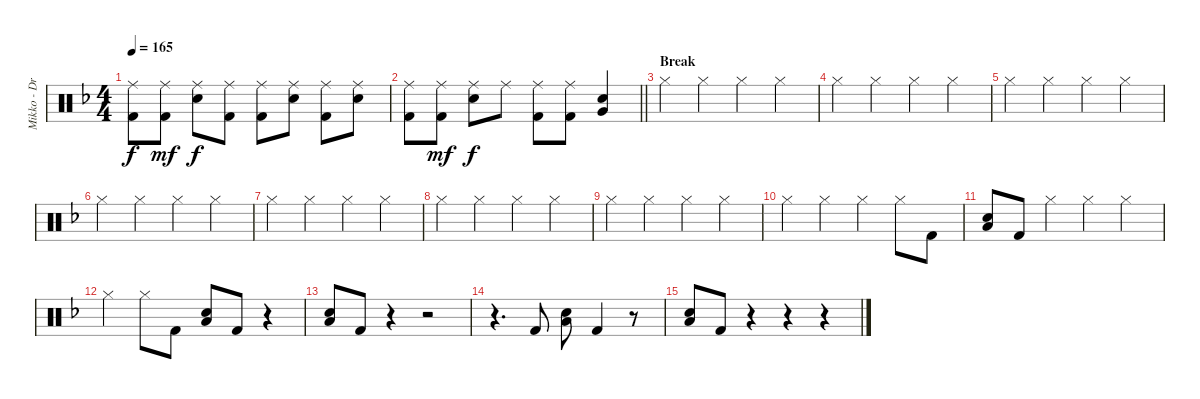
\track ("Mikko - Drums" "Mikko - Dr") {instrument percussion}
\staff {score}
\articulation defaults
\ts (4 4)
\tempo 165
\clef neutral
\ks dminor
("Ride (middle)" "Kick (hit) 2").8{dy f} ("Ride (middle)" "Kick (hit) 2").8{dy mf} ("Ride (middle)" "Snare (hit) 2").8{dy f} ("Ride (middle)" "Kick (hit) 2").8 ("Ride (middle)" "Kick (hit) 2").8 ("Ride (middle)" "Snare (hit) 2").8 ("Ride (middle)" "Kick (hit) 2").8 ("Ride (middle)" "Snare (hit) 2").8 |
\barLineRight lightlight
("Ride (middle)" "Kick (hit) 2").8 ("Ride (middle)" "Kick (hit) 2").8{dy mf} ("Ride (middle)" "Snare (hit) 2").8{dy f} "Ride (middle)".8 ("Ride (middle)" "Kick (hit) 2").8 ("Ride (middle)" "Kick (hit) 2").8 ("Snare (hit) 2" "Very Low Tom (hit)").4 |
\section ("" "Break")
"Hi-Hat (closed)".4 "Hi-Hat (closed)".4 "Hi-Hat (closed)".4 "Hi-Hat (closed)".4 |
"Hi-Hat (closed)".4 "Hi-Hat (closed)".4 "Hi-Hat (closed)".4 "Hi-Hat (closed)".4 |
"Hi-Hat (closed)".4 "Hi-Hat (closed)".4 "Hi-Hat (closed)".4 "Hi-Hat (closed)".4 |
"Hi-Hat (closed)".4 "Hi-Hat (closed)".4 "Hi-Hat (closed)".4 "Hi-Hat (closed)".4 |
"Hi-Hat (closed)".4 "Hi-Hat (closed)".4 "Hi-Hat (closed)".4 "Hi-Hat (closed)".4 |
"Hi-Hat (closed)".4 "Hi-Hat (closed)".4 "Hi-Hat (closed)".4 "Hi-Hat (closed)".4 |
"Hi-Hat (closed)".4 "Hi-Hat (closed)".4 "Hi-Hat (closed)".4 "Hi-Hat (closed)".4 |
"Hi-Hat (closed)".4 "Hi-Hat (closed)".4 "Hi-Hat (closed)".4 "Hi-Hat (closed)".8 "Kick (hit) 2".8 |
("Snare (hit) 2" "Low Tom (hit)").8 "Kick (hit) 2".8 "Hi-Hat (closed)".4 "Hi-Hat (closed)".4 "Hi-Hat (closed)".4 |
"Hi-Hat (closed)".4 "Hi-Hat (closed)".8 "Kick (hit) 2".8 ("Snare (hit) 2" "Low Tom (hit)").8 "Kick (hit) 2".8 r.4 |
("Snare (hit) 2" "Low Tom (hit)").8 "Kick (hit) 2".8 r.4 r.2 |
r.4{d} "Kick (hit) 2".8 ("Snare (hit) 2" "Low Tom (hit)").8 "Kick (hit) 2".4 r.8 |
("Snare (hit) 2" "Low Tom (hit)").8 "Kick (hit) 2".8 r.4 r.4 r.4
